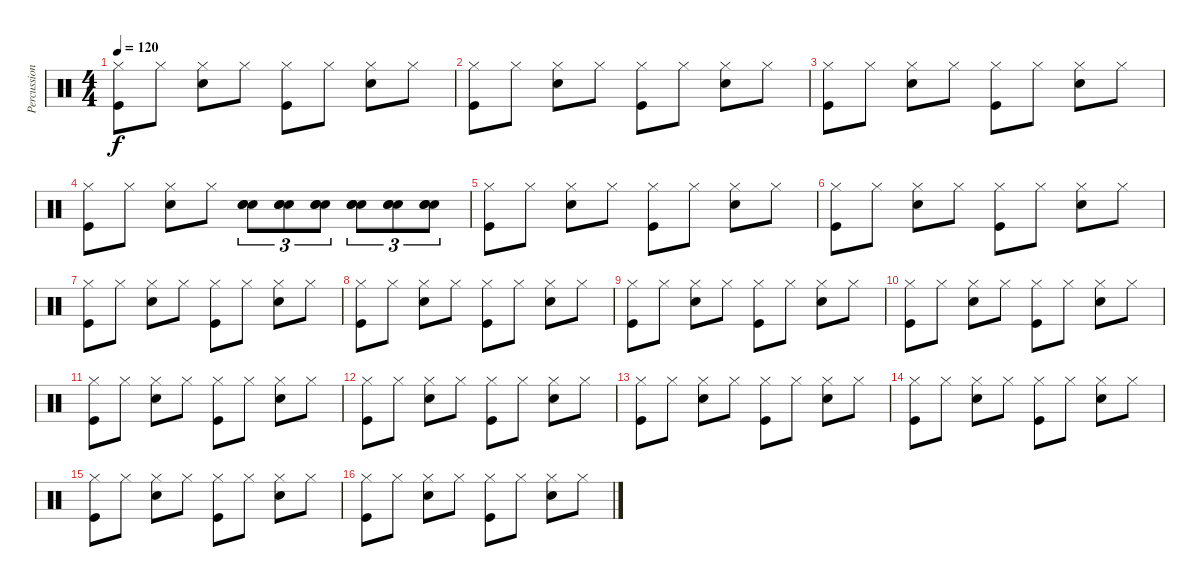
\track ("Percussions" "Percussion") {instrument percussion}
\staff {score}
\articulation defaults
\ts (4 4)
\tempo 120
\clef neutral
\ks c
("Hi-Hat (closed)" "Kick (hit)").8{dy f} "Hi-Hat (closed)".8 ("Hi-Hat (closed)" "Electric Snare (hit)").8 "Hi-Hat (closed)".8 ("Hi-Hat (closed)" "Kick (hit)").8 "Hi-Hat (closed)".8 ("Hi-Hat (closed)" "Electric Snare (hit)").8 "Hi-Hat (closed)".8 |
("Hi-Hat (closed)" "Kick (hit)").8 "Hi-Hat (closed)".8 ("Hi-Hat (closed)" "Electric Snare (hit)").8 "Hi-Hat (closed)".8 ("Hi-Hat (closed)" "Kick (hit)").8 "Hi-Hat (closed)".8 ("Hi-Hat (closed)" "Electric Snare (hit)").8 "Hi-Hat (closed)".8 |
("Hi-Hat (closed)" "Kick (hit)").8 "Hi-Hat (closed)".8 ("Hi-Hat (closed)" "Electric Snare (hit)").8 "Hi-Hat (closed)".8 ("Hi-Hat (closed)" "Kick (hit)").8 "Hi-Hat (closed)".8 ("Hi-Hat (closed)" "Electric Snare (hit)").8 "Hi-Hat (closed)".8 |
("Hi-Hat (closed)" "Kick (hit)").8 "Hi-Hat (closed)".8 ("Hi-Hat (closed)" "Electric Snare (hit)").8 "Hi-Hat (closed)".8 ("Electric Snare (hit)" "Electric Snare (hit)" "Electric Snare (hit)").8{tu (3 2)} ("Electric Snare (hit)" "Electric Snare (hit)" "Electric Snare (hit)").8{tu (3 2)} ("Electric Snare (hit)" "Electric Snare (hit)" "Electric Snare (hit)").8{tu (3 2)} ("Electric Snare (hit)" "Electric Snare (hit)" "Electric Snare (hit)").8{tu (3 2)} ("Electric Snare (hit)" "Electric Snare (hit)" "Electric Snare (hit)").8{tu (3 2)} ("Electric Snare (hit)" "Electric Snare (hit)" "Electric Snare (hit)").8{tu (3 2)} |
("Hi-Hat (closed)" "Kick (hit)").8 "Hi-Hat (closed)".8 ("Hi-Hat (closed)" "Electric Snare (hit)").8 "Hi-Hat (closed)".8 ("Hi-Hat (closed)" "Kick (hit)").8 "Hi-Hat (closed)".8 ("Hi-Hat (closed)" "Electric Snare (hit)").8 "Hi-Hat (closed)".8 |
("Hi-Hat (closed)" "Kick (hit)").8 "Hi-Hat (closed)".8 ("Hi-Hat (closed)" "Electric Snare (hit)").8 "Hi-Hat (closed)".8 ("Hi-Hat (closed)" "Kick (hit)").8 "Hi-Hat (closed)".8 ("Hi-Hat (closed)" "Electric Snare (hit)").8 "Hi-Hat (closed)".8 |
("Hi-Hat (closed)" "Kick (hit)").8 "Hi-Hat (closed)".8 ("Hi-Hat (closed)" "Electric Snare (hit)").8 "Hi-Hat (closed)".8 ("Hi-Hat (closed)" "Kick (hit)").8 "Hi-Hat (closed)".8 ("Hi-Hat (closed)" "Electric Snare (hit)").8 "Hi-Hat (closed)".8 |
("Hi-Hat (closed)" "Kick (hit)").8 "Hi-Hat (closed)".8 ("Hi-Hat (closed)" "Electric Snare (hit)").8 "Hi-Hat (closed)".8 ("Hi-Hat (closed)" "Kick (hit)").8 "Hi-Hat (closed)".8 ("Hi-Hat (closed)" "Electric Snare (hit)").8 "Hi-Hat (closed)".8 |
("Hi-Hat (closed)" "Kick (hit)").8 "Hi-Hat (closed)".8 ("Hi-Hat (closed)" "Electric Snare (hit)").8 "Hi-Hat (closed)".8 ("Hi-Hat (closed)" "Kick (hit)").8 "Hi-Hat (closed)".8 ("Hi-Hat (closed)" "Electric Snare (hit)").8 "Hi-Hat (closed)".8 |
("Hi-Hat (closed)" "Kick (hit)").8 "Hi-Hat (closed)".8 ("Hi-Hat (closed)" "Electric Snare (hit)").8 "Hi-Hat (closed)".8 ("Hi-Hat (closed)" "Kick (hit)").8 "Hi-Hat (closed)".8 ("Hi-Hat (closed)" "Electric Snare (hit)").8 "Hi-Hat (closed)".8 |
("Hi-Hat (closed)" "Kick (hit)").8 "Hi-Hat (closed)".8 ("Hi-Hat (closed)" "Electric Snare (hit)").8 "Hi-Hat (closed)".8 ("Hi-Hat (closed)" "Kick (hit)").8 "Hi-Hat (closed)".8 ("Hi-Hat (closed)" "Electric Snare (hit)").8 "Hi-Hat (closed)".8 |
("Hi-Hat (closed)" "Kick (hit)").8 "Hi-Hat (closed)".8 ("Hi-Hat (closed)" "Electric Snare (hit)").8 "Hi-Hat (closed)".8 ("Hi-Hat (closed)" "Kick (hit)").8 "Hi-Hat (closed)".8 ("Hi-Hat (closed)" "Electric Snare (hit)").8 "Hi-Hat (closed)".8 |
("Hi-Hat (closed)" "Kick (hit)").8 "Hi-Hat (closed)".8 ("Hi-Hat (closed)" "Electric Snare (hit)").8 "Hi-Hat (closed)".8 ("Hi-Hat (closed)" "Kick (hit)").8 "Hi-Hat (closed)".8 ("Hi-Hat (closed)" "Electric Snare (hit)").8 "Hi-Hat (closed)".8 |
("Hi-Hat (closed)" "Kick (hit)").8 "Hi-Hat (closed)".8 ("Hi-Hat (closed)" "Electric Snare (hit)").8 "Hi-Hat (closed)".8 ("Hi-Hat (closed)" "Kick (hit)").8 "Hi-Hat (closed)".8 ("Hi-Hat (closed)" "Electric Snare (hit)").8 "Hi-Hat (closed)".8 |
("Hi-Hat (closed)" "Kick (hit)").8 "Hi-Hat (closed)".8 ("Hi-Hat (closed)" "Electric Snare (hit)").8 "Hi-Hat (closed)".8 ("Hi-Hat (closed)" "Kick (hit)").8 "Hi-Hat (closed)".8 ("Hi-Hat (closed)" "Electric Snare (hit)").8 "Hi-Hat (closed)".8 |
("Hi-Hat (closed)" "Kick (hit)").8 "Hi-Hat (closed)".8 ("Hi-Hat (closed)" "Electric Snare (hit)").8 "Hi-Hat (closed)".8 ("Hi-Hat (closed)" "Kick (hit)").8 "Hi-Hat (closed)".8 ("Hi-Hat (closed)" "Electric Snare (hit)").8 "Hi-Hat (closed)".8
